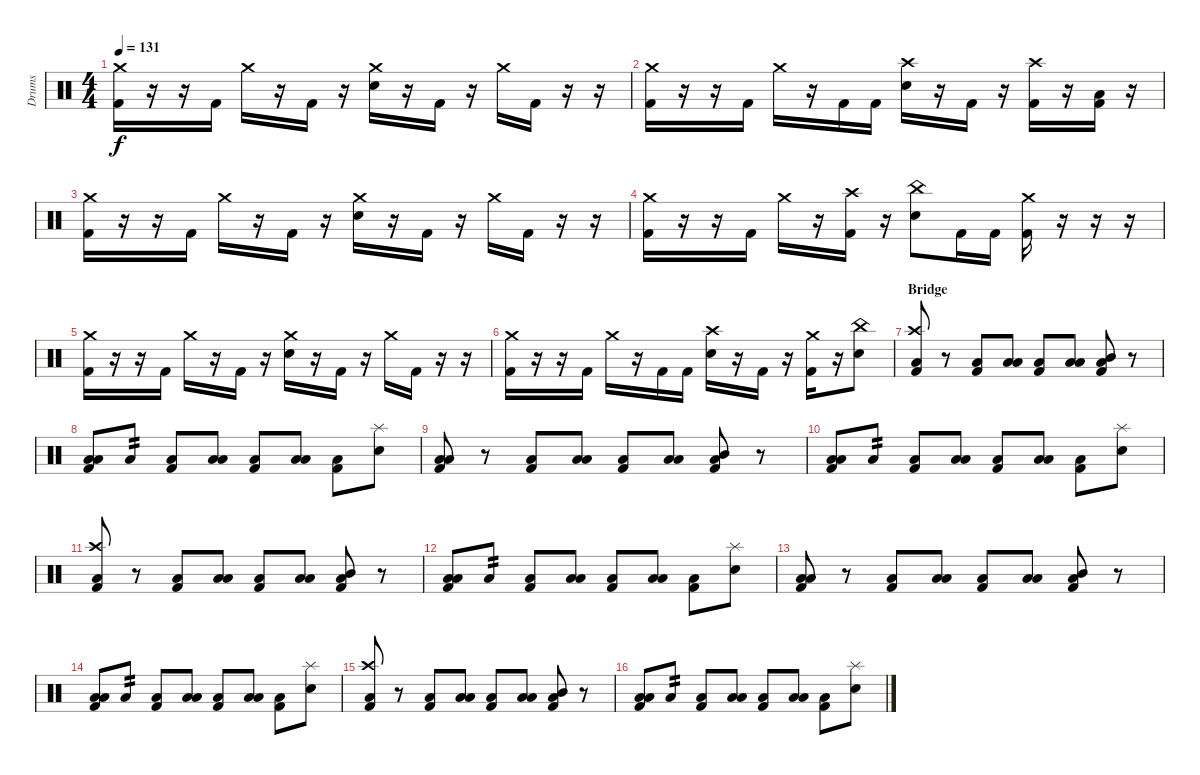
\track ("Drums" "Drums") {instrument percussion}
\staff {score}
\articulation defaults
\ts (4 4)
\tempo 131
\clef neutral
\ks c
("Crash medium (hit)" "Kick (hit) 2").16{dy f} r.16 r.16 "Kick (hit) 2".16 "Crash medium (hit)".16 r.16 "Kick (hit) 2".16 r.16 ("Crash medium (hit)" "Electric Snare (hit)").16 r.16 "Kick (hit) 2".16 r.16 "Crash medium (hit)".16 "Kick (hit) 2".16 r.16 r.16 |
("Crash medium (hit)" "Kick (hit) 2").16 r.16 r.16 "Kick (hit) 2".16 "Crash medium (hit)".16 r.16 "Kick (hit) 2".16 "Kick (hit) 2".16 ("Crash high (hit)" "Electric Snare (hit)").16 r.16 "Kick (hit) 2".16 r.16 ("Crash high (hit)" "Kick (hit) 2").16 r.16 ("Low Tom (hit)" "Kick (hit) 2").16 r.16 |
("Crash medium (hit)" "Kick (hit) 2").16 r.16 r.16 "Kick (hit) 2".16 "Crash medium (hit)".16 r.16 "Kick (hit) 2".16 r.16 ("Crash medium (hit)" "Electric Snare (hit)").16 r.16 "Kick (hit) 2".16 r.16 "Crash medium (hit)".16 "Kick (hit) 2".16 r.16 r.16 |
("Crash medium (hit)" "Kick (hit) 2").16 r.16 r.16 "Kick (hit) 2".16 "Crash medium (hit)".16 r.16 ("Crash high (hit)" "Kick (hit) 2").16 r.16 ("China (hit)" "Electric Snare (hit)").8 "Kick (hit) 2".16 "Kick (hit) 2".16 ("Crash medium (hit)" "Kick (hit) 2").16 r.16 r.16 r.16 |
("Crash medium (hit)" "Kick (hit) 2").16 r.16 r.16 "Kick (hit) 2".16 "Crash medium (hit)".16 r.16 "Kick (hit) 2".16 r.16 ("Crash medium (hit)" "Electric Snare (hit)").16 r.16 "Kick (hit) 2".16 r.16 "Crash medium (hit)".16 "Kick (hit) 2".16 r.16 r.16 |
("Crash medium (hit)" "Kick (hit) 2").16 r.16 r.16 "Kick (hit) 2".16 "Crash medium (hit)".16 r.16 "Kick (hit) 2".16 "Kick (hit) 2".16 ("Crash high (hit)" "Electric Snare (hit)").16 r.16 "Kick (hit) 2".16 r.16 ("Crash medium (hit)" "Kick (hit) 2").16 r.16 ("China (hit)" "Electric Snare (hit)").8 |
\section ("" "Bridge")
("Crash high (hit)" "Low Floor Tom (hit)" "Kick (hit) 2").8 r.8 ("Low Floor Tom (hit)" "Kick (hit) 2").8 ("Low Tom (hit)" "Low Floor Tom (hit)").8 ("Low Floor Tom (hit)" "Kick (hit) 2").8 ("Low Tom (hit)" "Low Floor Tom (hit)").8 ("Mid Tom (hit)" "Low Floor Tom (hit)" "Kick (hit) 2").8 r.8 |
("Low Tom (hit)" "Low Floor Tom (hit)" "Kick (hit) 2").8 "Low Floor Tom (hit)".8{tp 2} ("Low Floor Tom (hit)" "Kick (hit) 2").8 ("Low Tom (hit)" "Low Floor Tom (hit)").8 ("Low Floor Tom (hit)" "Kick (hit) 2").8 ("Low Tom (hit)" "Low Floor Tom (hit)").8 ("Low Floor Tom (hit)" "Kick (hit) 2").8 ("Splash (hit)" "Electric Snare (hit)").8 |
("Low Tom (hit)" "Low Floor Tom (hit)" "Kick (hit) 2").8 r.8 ("Low Floor Tom (hit)" "Kick (hit) 2").8 ("Low Tom (hit)" "Low Floor Tom (hit)").8 ("Low Floor Tom (hit)" "Kick (hit) 2").8 ("Low Tom (hit)" "Low Floor Tom (hit)").8 ("Mid Tom (hit)" "Low Floor Tom (hit)" "Kick (hit) 2").8 r.8 |
("Low Tom (hit)" "Low Floor Tom (hit)" "Kick (hit) 2").8 "Low Floor Tom (hit)".8{tp 2} ("Low Floor Tom (hit)" "Kick (hit) 2").8 ("Low Tom (hit)" "Low Floor Tom (hit)").8 ("Low Floor Tom (hit)" "Kick (hit) 2").8 ("Low Tom (hit)" "Low Floor Tom (hit)").8 ("Low Floor Tom (hit)" "Kick (hit) 2").8 ("Splash (hit)" "Electric Snare (hit)").8 |
("Crash high (hit)" "Low Floor Tom (hit)" "Kick (hit) 2").8 r.8 ("Low Floor Tom (hit)" "Kick (hit) 2").8 ("Low Tom (hit)" "Low Floor Tom (hit)").8 ("Low Floor Tom (hit)" "Kick (hit) 2").8 ("Low Tom (hit)" "Low Floor Tom (hit)").8 ("Mid Tom (hit)" "Low Floor Tom (hit)" "Kick (hit) 2").8 r.8 |
("Low Tom (hit)" "Low Floor Tom (hit)" "Kick (hit) 2").8 "Low Floor Tom (hit)".8{tp 2} ("Low Floor Tom (hit)" "Kick (hit) 2").8 ("Low Tom (hit)" "Low Floor Tom (hit)").8 ("Low Floor Tom (hit)" "Kick (hit) 2").8 ("Low Tom (hit)" "Low Floor Tom (hit)").8 ("Low Floor Tom (hit)" "Kick (hit) 2").8 ("Splash (hit)" "Electric Snare (hit)").8 |
("Low Tom (hit)" "Low Floor Tom (hit)" "Kick (hit) 2").8 r.8 ("Low Floor Tom (hit)" "Kick (hit) 2").8 ("Low Tom (hit)" "Low Floor Tom (hit)").8 ("Low Floor Tom (hit)" "Kick (hit) 2").8 ("Low Tom (hit)" "Low Floor Tom (hit)").8 ("Mid Tom (hit)" "Low Floor Tom (hit)" "Kick (hit) 2").8 r.8 |
("Low Tom (hit)" "Low Floor Tom (hit)" "Kick (hit) 2").8 "Low Floor Tom (hit)".8{tp 2} ("Low Floor Tom (hit)" "Kick (hit) 2").8 ("Low Tom (hit)" "Low Floor Tom (hit)").8 ("Low Floor Tom (hit)" "Kick (hit) 2").8 ("Low Tom (hit)" "Low Floor Tom (hit)").8 ("Low Floor Tom (hit)" "Kick (hit) 2").8 ("Splash (hit)" "Electric Snare (hit)").8 |
("Crash high (hit)" "Low Floor Tom (hit)" "Kick (hit) 2").8 r.8 ("Low Floor Tom (hit)" "Kick (hit) 2").8 ("Low Tom (hit)" "Low Floor Tom (hit)").8 ("Low Floor Tom (hit)" "Kick (hit) 2").8 ("Low Tom (hit)" "Low Floor Tom (hit)").8 ("Mid Tom (hit)" "Low Floor Tom (hit)" "Kick (hit) 2").8 r.8 |
("Low Tom (hit)" "Low Floor Tom (hit)" "Kick (hit) 2").8 "Low Floor Tom (hit)".8{tp 2} ("Low Floor Tom (hit)" "Kick (hit) 2").8 ("Low Tom (hit)" "Low Floor Tom (hit)").8 ("Low Floor Tom (hit)" "Kick (hit) 2").8 ("Low Tom (hit)" "Low Floor Tom (hit)").8 ("Low Floor Tom (hit)" "Kick (hit) 2").8 ("Splash (hit)" "Electric Snare (hit)").8
